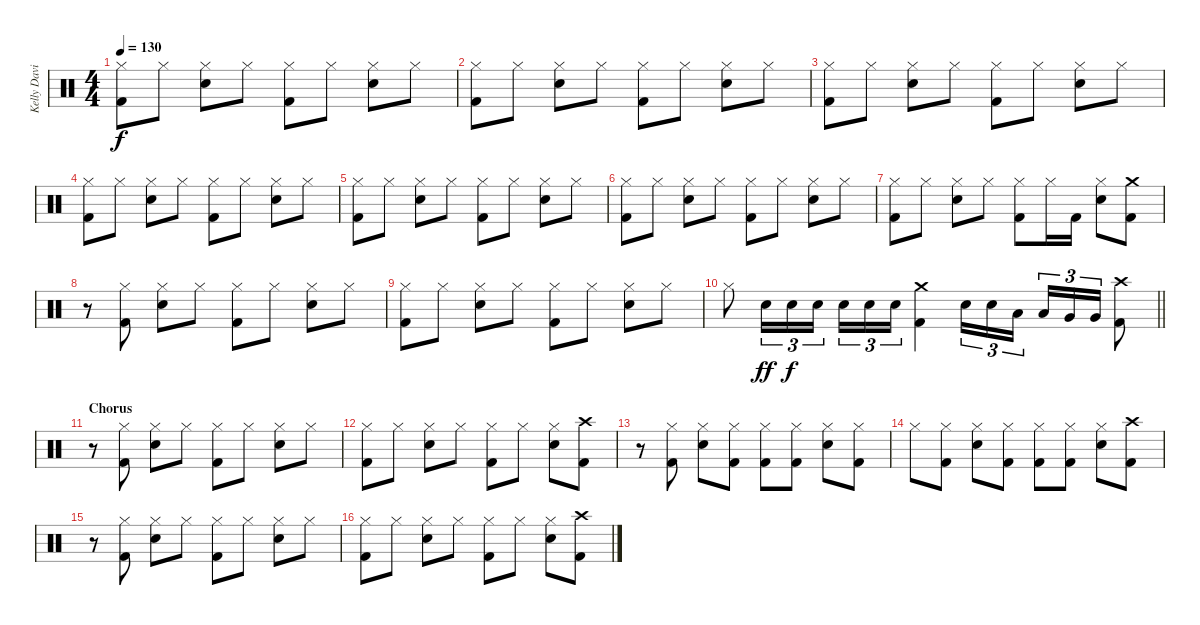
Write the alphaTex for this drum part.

\track ("Kelly David Smith" "Kelly Davi") {instrument percussion}
\staff {score}
\articulation defaults
\ts (4 4)
\tempo 130
\clef neutral
\ks c
("Hi-Hat (closed)" "Kick (hit) 2").8{dy f} "Hi-Hat (closed)".8 ("Hi-Hat (closed)" "Snare (hit) 2").8 "Hi-Hat (closed)".8 ("Hi-Hat (closed)" "Kick (hit) 2").8 "Hi-Hat (closed)".8 ("Hi-Hat (closed)" "Snare (hit) 2").8 "Hi-Hat (closed)".8 |
("Hi-Hat (closed)" "Kick (hit) 2").8 "Hi-Hat (closed)".8 ("Hi-Hat (closed)" "Snare (hit) 2").8 "Hi-Hat (closed)".8 ("Hi-Hat (closed)" "Kick (hit) 2").8 "Hi-Hat (closed)".8 ("Hi-Hat (closed)" "Snare (hit) 2").8 "Hi-Hat (closed)".8 |
("Hi-Hat (closed)" "Kick (hit) 2").8 "Hi-Hat (closed)".8 ("Hi-Hat (closed)" "Snare (hit) 2").8 "Hi-Hat (closed)".8 ("Hi-Hat (closed)" "Kick (hit) 2").8 "Hi-Hat (closed)".8 ("Hi-Hat (closed)" "Snare (hit) 2").8 "Hi-Hat (closed)".8 |
("Hi-Hat (closed)" "Kick (hit) 2").8 "Hi-Hat (closed)".8 ("Hi-Hat (closed)" "Snare (hit) 2").8 "Hi-Hat (closed)".8 ("Hi-Hat (closed)" "Kick (hit) 2").8 "Hi-Hat (closed)".8 ("Hi-Hat (closed)" "Snare (hit) 2").8 "Hi-Hat (closed)".8 |
("Hi-Hat (closed)" "Kick (hit) 2").8 "Hi-Hat (closed)".8 ("Hi-Hat (closed)" "Snare (hit) 2").8 "Hi-Hat (closed)".8 ("Hi-Hat (closed)" "Kick (hit) 2").8 "Hi-Hat (closed)".8 ("Hi-Hat (closed)" "Snare (hit) 2").8 "Hi-Hat (closed)".8 |
("Hi-Hat (closed)" "Kick (hit) 2").8 "Hi-Hat (closed)".8 ("Hi-Hat (closed)" "Snare (hit) 2").8 "Hi-Hat (closed)".8 ("Hi-Hat (closed)" "Kick (hit) 2").8 "Hi-Hat (closed)".8 ("Hi-Hat (closed)" "Snare (hit) 2").8 "Hi-Hat (closed)".8 |
("Hi-Hat (closed)" "Kick (hit) 2").8 "Hi-Hat (closed)".8 ("Hi-Hat (closed)" "Snare (hit) 2").8 "Hi-Hat (closed)".8 ("Hi-Hat (closed)" "Kick (hit) 2").8 "Hi-Hat (closed)".16 "Kick (hit) 2".16 ("Hi-Hat (closed)" "Snare (hit) 2").8 ("Crash medium (hit)" "Kick (hit) 2").8 |
r.8 ("Hi-Hat (closed)" "Kick (hit) 2").8 ("Hi-Hat (closed)" "Snare (hit) 2").8 "Hi-Hat (closed)".8 ("Hi-Hat (closed)" "Kick (hit) 2").8 "Hi-Hat (closed)".8 ("Hi-Hat (closed)" "Snare (hit) 2").8 "Hi-Hat (closed)".8 |
("Hi-Hat (closed)" "Kick (hit) 2").8 "Hi-Hat (closed)".8 ("Hi-Hat (closed)" "Snare (hit) 2").8 "Hi-Hat (closed)".8 ("Hi-Hat (closed)" "Kick (hit) 2").8 "Hi-Hat (closed)".8 ("Hi-Hat (closed)" "Snare (hit) 2").8 "Hi-Hat (closed)".8 |
\barLineRight lightlight "Hi-Hat (closed)".8 "Snare (hit) 2".16{tu (3 2) dy ff} "Snare (hit) 2".16{tu (3 2) dy f} "Snare (hit) 2".16{tu (3 2)} "Snare (hit) 2".16{tu (3 2)} "Snare (hit) 2".16{tu (3 2)} "Snare (hit) 2".16{tu (3 2)}
("Crash medium (hit)" "Kick (hit) 2").4 "Snare (hit) 2".16{tu (3 2)} "Snare (hit) 2".16{tu (3 2)} "Low Tom (hit)".16{tu (3 2)} "Low Tom (hit)".16{tu (3 2)} "Very Low Tom (hit)".16{tu (3 2)} "Very Low Tom (hit)".16{tu (3 2)} ("Crash high (hit)" "Kick (hit) 2").8 |
\section ("" "Chorus")
r.8 ("Hi-Hat (closed)" "Kick (hit) 2").8 ("Hi-Hat (closed)" "Snare (hit) 2").8 "Hi-Hat (closed)".8 ("Hi-Hat (closed)" "Kick (hit) 2").8 "Hi-Hat (closed)".8 ("Hi-Hat (closed)" "Snare (hit) 2").8 "Hi-Hat (closed)".8 |
("Hi-Hat (closed)" "Kick (hit) 2").8 "Hi-Hat (closed)".8 ("Hi-Hat (closed)" "Snare (hit) 2").8 "Hi-Hat (closed)".8 ("Hi-Hat (closed)" "Kick (hit) 2").8 "Hi-Hat (closed)".8 ("Hi-Hat (closed)" "Snare (hit) 2").8 ("Crash high (hit)" "Kick (hit) 2").8 |
r.8 ("Hi-Hat (closed)" "Kick (hit) 2").8 ("Hi-Hat (closed)" "Snare (hit) 2").8 ("Hi-Hat (closed)" "Kick (hit) 2").8 ("Hi-Hat (closed)" "Kick (hit) 2").8 ("Hi-Hat (closed)" "Kick (hit) 2").8 ("Hi-Hat (closed)" "Snare (hit) 2").8 ("Hi-Hat (closed)" "Kick (hit) 2").8 |
"Hi-Hat (closed)".8 ("Hi-Hat (closed)" "Kick (hit) 2").8 ("Hi-Hat (closed)" "Snare (hit) 2").8 ("Hi-Hat (closed)" "Kick (hit) 2").8 ("Hi-Hat (closed)" "Kick (hit) 2").8 ("Hi-Hat (closed)" "Kick (hit) 2").8 ("Hi-Hat (closed)" "Snare (hit) 2").8 ("Crash high (hit)" "Kick (hit) 2").8 |
r.8 ("Hi-Hat (closed)" "Kick (hit) 2").8 ("Hi-Hat (closed)" "Snare (hit) 2").8 "Hi-Hat (closed)".8 ("Hi-Hat (closed)" "Kick (hit) 2").8 "Hi-Hat (closed)".8 ("Hi-Hat (closed)" "Snare (hit) 2").8 "Hi-Hat (closed)".8 |
("Hi-Hat (closed)" "Kick (hit) 2").8 "Hi-Hat (closed)".8 ("Hi-Hat (closed)" "Snare (hit) 2").8 "Hi-Hat (closed)".8 ("Hi-Hat (closed)" "Kick (hit) 2").8 "Hi-Hat (closed)".8 ("Hi-Hat (closed)" "Snare (hit) 2").8 ("Crash high (hit)" "Kick (hit) 2").8
